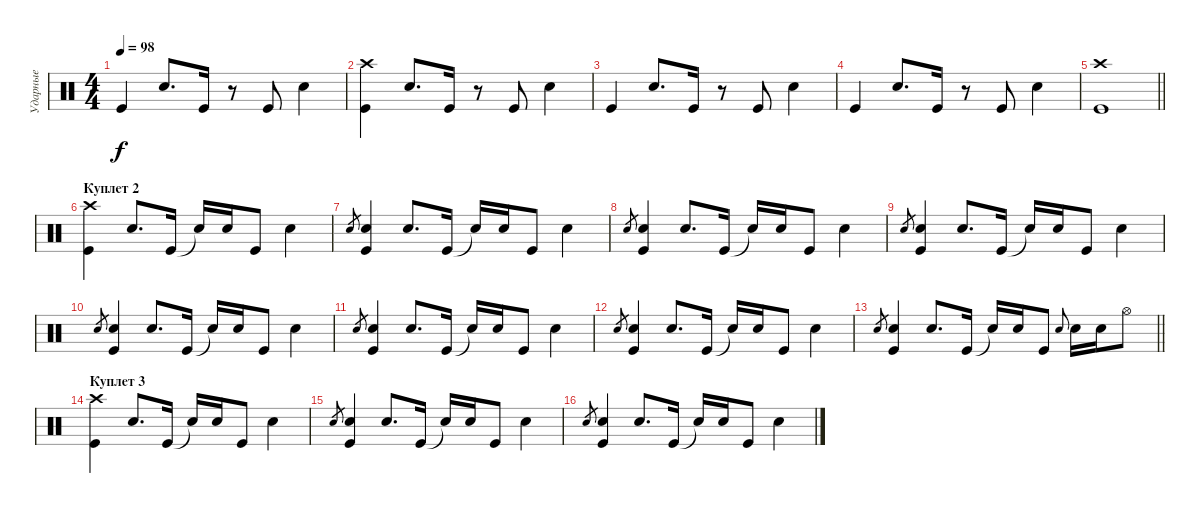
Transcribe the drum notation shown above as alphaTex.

\track ("Ударные" "Ударные") {instrument percussion}
\staff {score}
\articulation defaults
\ts (4 4)
\tempo 98
\clef neutral
\ks c "Kick (hit)".4{dy f} "Snare (hit) 2".8{d} "Kick (hit)".16
r.8 "Kick (hit)".8 "Snare (hit) 2".4 |
("Crash high (hit)" "Kick (hit)").4 "Snare (hit) 2".8{d} "Kick (hit)".16 r.8 "Kick (hit)".8 "Snare (hit) 2".4 |
"Kick (hit)".4 "Snare (hit) 2".8{d} "Kick (hit)".16 r.8 "Kick (hit)".8 "Snare (hit) 2".4 |
"Kick (hit)".4 "Snare (hit) 2".8{d} "Kick (hit)".16 r.8 "Kick (hit)".8 "Snare (hit) 2".4 |
\barLineRight lightlight
("Crash high (hit)" "Kick (hit)").1 |
\section ("" "Куплет 2")
("Crash high (hit)" "Kick (hit)").4 "Snare (hit) 2".8{d} "Kick (hit)".16 "Snare (hit)"{t}.16 "Snare (hit) 2".16 "Kick (hit)".8 "Snare (hit) 2".4 |
"Snare (hit) 2"{sl x}.8{gr} ("Snare (hit) 2" "Kick (hit)").4 "Snare (hit) 2".8{d} "Kick (hit)".16 "Snare (hit)"{t}.16 "Snare (hit) 2".16 "Kick (hit)".8 "Snare (hit) 2".4 |
"Snare (hit) 2"{sl x}.8{gr} ("Snare (hit) 2" "Kick (hit)").4 "Snare (hit) 2".8{d} "Kick (hit)".16 "Snare (hit)"{t}.16 "Snare (hit) 2".16 "Kick (hit)".8 "Snare (hit) 2".4 |
"Snare (hit) 2"{sl x}.8{gr} ("Snare (hit) 2" "Kick (hit)").4 "Snare (hit) 2".8{d} "Kick (hit)".16 "Snare (hit)"{t}.16 "Snare (hit) 2".16 "Kick (hit)".8 "Snare (hit) 2".4 |
"Snare (hit) 2"{sl x}.8{gr} ("Snare (hit) 2" "Kick (hit)").4 "Snare (hit) 2".8{d} "Kick (hit)".16 "Snare (hit)"{t}.16 "Snare (hit) 2".16 "Kick (hit)".8 "Snare (hit) 2".4 |
"Snare (hit) 2"{sl x}.8{gr} ("Snare (hit) 2" "Kick (hit)").4 "Snare (hit) 2".8{d} "Kick (hit)".16 "Snare (hit)"{t}.16 "Snare (hit) 2".16 "Kick (hit)".8 "Snare (hit) 2".4 |
"Snare (hit) 2"{sl x}.8{gr} ("Snare (hit) 2" "Kick (hit)").4 "Snare (hit) 2".8{d} "Kick (hit)".16 "Snare (hit)"{t}.16 "Snare (hit) 2".16 "Kick (hit)".8 "Snare (hit) 2".4 |
\barLineRight lightlight "Snare (hit) 2"{sl x}.8{gr}
("Snare (hit) 2" "Kick (hit)").4 "Snare (hit) 2".8{d} "Kick (hit)".16 "Snare (hit)"{t}.16 "Snare (hit) 2".16 "Kick (hit)".8 "Snare (hit) 2".8{gr onbeat} "Snare (hit) 2".16 "Snare (hit) 2".16 "Hi-Hat (open)".8 |
\section ("" "Куплет 3")
("Crash high (hit)" "Kick (hit)").4 "Snare (hit) 2".8{d} "Kick (hit)".16 "Snare (hit)"{t}.16 "Snare (hit) 2".16 "Kick (hit)".8 "Snare (hit) 2".4 |
"Snare (hit) 2"{sl x}.8{gr} ("Snare (hit) 2" "Kick (hit)").4 "Snare (hit) 2".8{d} "Kick (hit)".16 "Snare (hit)"{t}.16 "Snare (hit) 2".16 "Kick (hit)".8 "Snare (hit) 2".4 |
"Snare (hit) 2"{sl x}.8{gr} ("Snare (hit) 2" "Kick (hit)").4 "Snare (hit) 2".8{d} "Kick (hit)".16 "Snare (hit)"{t}.16 "Snare (hit) 2".16 "Kick (hit)".8 "Snare (hit) 2".4
